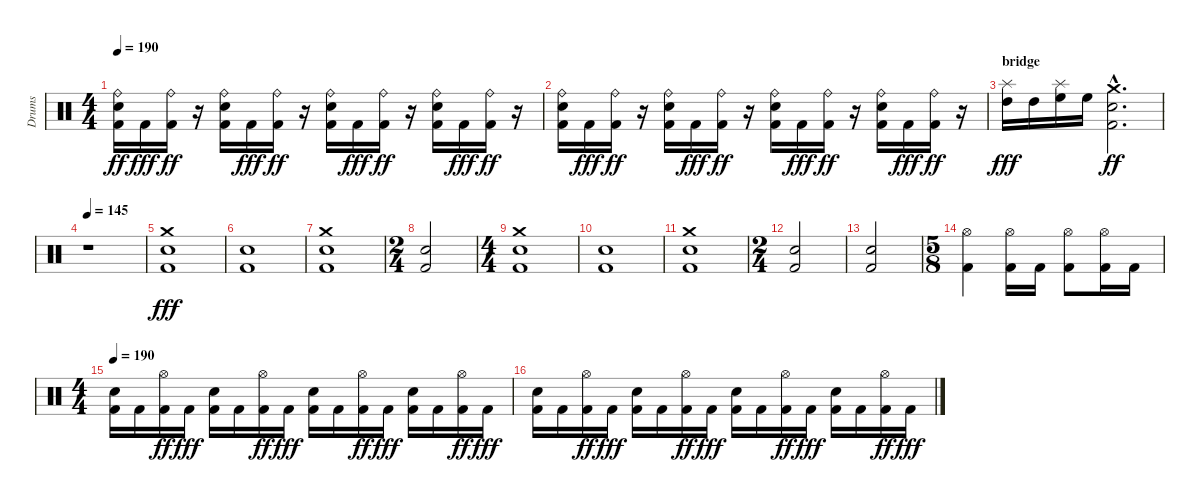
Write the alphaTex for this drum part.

\track ("Drums" "Drums") {instrument percussion}
\staff {score}
\articulation defaults
\ts (4 4)
\tempo 190
\clef neutral
\ks c
("Kick (hit) 2" "Ride (bell)" "Electric Snare (hit)").16{dy ff} "Kick (hit) 2".16{dy fff} ("Kick (hit) 2" "Ride (bell)").16{dy ff} r.16 ("Kick (hit) 2" "Ride (bell)" "Electric Snare (hit)").16 "Kick (hit) 2".16{dy fff} ("Kick (hit) 2" "Ride (bell)").16{dy ff} r.16 ("Kick (hit) 2" "Ride (bell)" "Electric Snare (hit)").16 "Kick (hit) 2".16{dy fff} ("Kick (hit) 2" "Ride (bell)").16{dy ff} r.16 ("Kick (hit) 2" "Ride (bell)" "Electric Snare (hit)").16 "Kick (hit) 2".16{dy fff} ("Kick (hit) 2" "Ride (bell)").16{dy ff} r.16 |
("Kick (hit) 2" "Ride (bell)" "Electric Snare (hit)").16 "Kick (hit) 2".16{dy fff} ("Kick (hit) 2" "Ride (bell)").16{dy ff} r.16 ("Kick (hit) 2" "Ride (bell)" "Electric Snare (hit)").16 "Kick (hit) 2".16{dy fff} ("Kick (hit) 2" "Ride (bell)").16{dy ff} r.16 ("Kick (hit) 2" "Ride (bell)" "Electric Snare (hit)").16 "Kick (hit) 2".16{dy fff} ("Kick (hit) 2" "Ride (bell)").16{dy ff} r.16 ("Kick (hit) 2" "Ride (bell)" "Electric Snare (hit)").16 "Kick (hit) 2".16{dy fff} ("Kick (hit) 2" "Ride (bell)").16{dy ff} r.16 |
\section ("" "bridge")
("Splash (hit)" "High Tom (hit)").16{dy fff} "High Tom (hit)".16 ("Splash (hit)" "High Floor Tom (hit)").16 "High Floor Tom (hit)".16 ("Electric Snare (hit)"{hac} "Kick (hit) 2"{hac} "Crash medium (hit)"{hac}).2{d dy ff} |
\tempo 145
r.1 |
("Crash medium (hit)" "Electric Snare (hit)" "Kick (hit) 2").1{dy fff} |
("Electric Snare (hit)" "Kick (hit) 2").1 |
("Crash medium (hit)" "Electric Snare (hit)" "Kick (hit) 2").1 |
\ts (2 4)
("Electric Snare (hit)" "Kick (hit) 2").2 |
\ts (4 4)
("Crash medium (hit)" "Electric Snare (hit)" "Kick (hit) 2").1 |
("Electric Snare (hit)" "Kick (hit) 2").1 |
("Crash medium (hit)" "Electric Snare (hit)" "Kick (hit) 2").1 |
\ts (2 4)
("Electric Snare (hit)" "Kick (hit) 2").2 |
("Electric Snare (hit)" "Kick (hit) 2").2 |
\ts (5 8)
("Hi-Hat (open)" "Kick (hit) 2").4 ("Kick (hit) 2" "Hi-Hat (open)").16 "Kick (hit) 2".16 ("Kick (hit) 2" "Hi-Hat (open)").8 ("Kick (hit) 2" "Hi-Hat (open)").16 "Kick (hit) 2".16 |
\ts (4 4)
\tempo 190
("Kick (hit) 2" "Electric Snare (hit)").16 "Kick (hit) 2".16 ("Kick (hit) 2" "Hi-Hat (open)").16{dy ff} "Kick (hit) 2".16{dy fff} ("Kick (hit) 2" "Electric Snare (hit)").16 "Kick (hit) 2".16 ("Kick (hit) 2" "Hi-Hat (open)").16{dy ff} "Kick (hit) 2".16{dy fff} ("Kick (hit) 2" "Electric Snare (hit)").16 "Kick (hit) 2".16 ("Kick (hit) 2" "Hi-Hat (open)").16{dy ff} "Kick (hit) 2".16{dy fff} ("Kick (hit) 2" "Electric Snare (hit)").16 "Kick (hit) 2".16 ("Kick (hit) 2" "Hi-Hat (open)").16{dy ff} "Kick (hit) 2".16{dy fff} |
("Kick (hit) 2" "Electric Snare (hit)").16 "Kick (hit) 2".16 ("Kick (hit) 2" "Hi-Hat (open)").16{dy ff} "Kick (hit) 2".16{dy fff} ("Kick (hit) 2" "Electric Snare (hit)").16 "Kick (hit) 2".16 ("Kick (hit) 2" "Hi-Hat (open)").16{dy ff} "Kick (hit) 2".16{dy fff} ("Kick (hit) 2" "Electric Snare (hit)").16 "Kick (hit) 2".16 ("Kick (hit) 2" "Hi-Hat (open)").16{dy ff} "Kick (hit) 2".16{dy fff} ("Kick (hit) 2" "Electric Snare (hit)").16 "Kick (hit) 2".16 ("Kick (hit) 2" "Hi-Hat (open)").16{dy ff} "Kick (hit) 2".16{dy fff}
